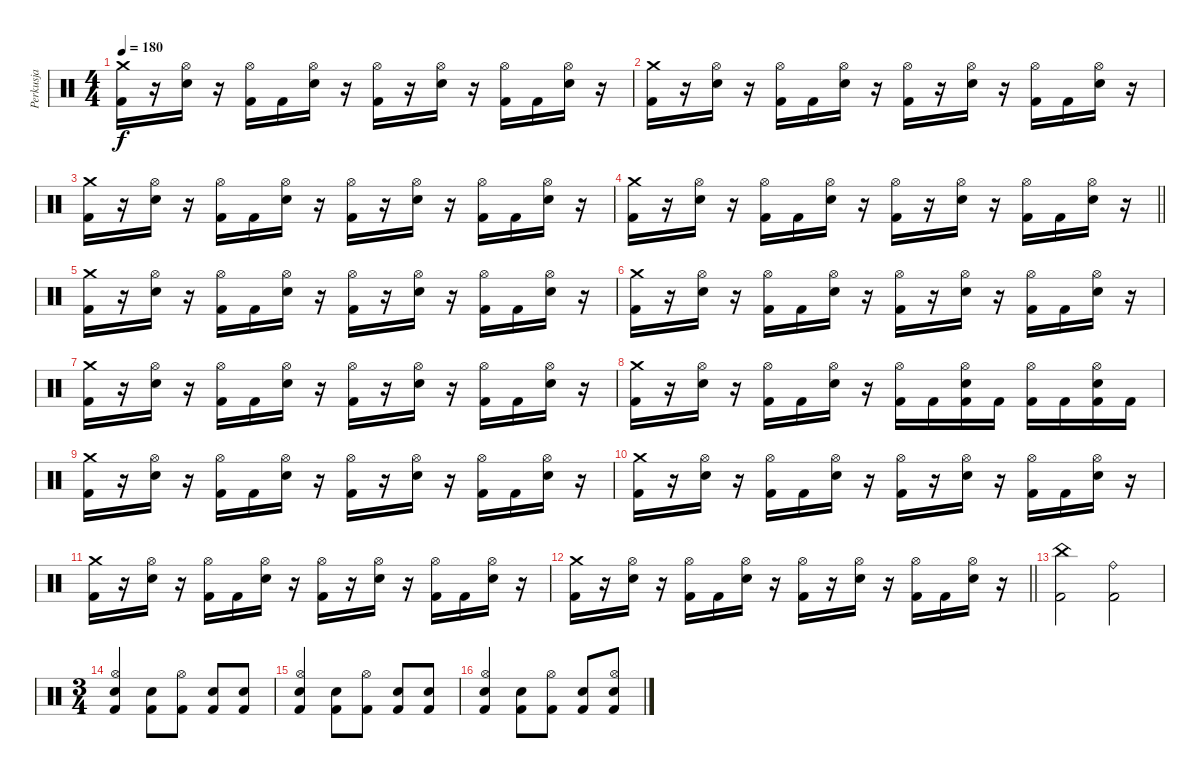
\track ("Perkusja" "Perkusja") {instrument percussion}
\staff {score}
\articulation defaults
\ts (4 4)
\tempo 180
\clef neutral
\ks c
("Crash medium (hit)" "Kick (hit) 2").16{dy f} r.16 ("Hi-Hat (open)" "Snare (hit) 2").16 r.16 ("Hi-Hat (open)" "Kick (hit) 2").16 "Kick (hit) 2".16 ("Hi-Hat (open)" "Snare (hit) 2").16 r.16 ("Hi-Hat (open)" "Kick (hit) 2").16 r.16 ("Hi-Hat (open)" "Snare (hit) 2").16 r.16 ("Hi-Hat (open)" "Kick (hit) 2").16 "Kick (hit) 2".16 ("Hi-Hat (open)" "Snare (hit) 2").16 r.16 |
("Crash medium (hit)" "Kick (hit) 2").16 r.16 ("Hi-Hat (open)" "Snare (hit) 2").16 r.16 ("Hi-Hat (open)" "Kick (hit) 2").16 "Kick (hit) 2".16 ("Hi-Hat (open)" "Snare (hit) 2").16 r.16 ("Hi-Hat (open)" "Kick (hit) 2").16 r.16 ("Hi-Hat (open)" "Snare (hit) 2").16 r.16 ("Hi-Hat (open)" "Kick (hit) 2").16 "Kick (hit) 2".16 ("Hi-Hat (open)" "Snare (hit) 2").16 r.16 |
("Crash medium (hit)" "Kick (hit) 2").16 r.16 ("Hi-Hat (open)" "Snare (hit) 2").16 r.16 ("Hi-Hat (open)" "Kick (hit) 2").16 "Kick (hit) 2".16 ("Hi-Hat (open)" "Snare (hit) 2").16 r.16 ("Hi-Hat (open)" "Kick (hit) 2").16 r.16 ("Hi-Hat (open)" "Snare (hit) 2").16 r.16 ("Hi-Hat (open)" "Kick (hit) 2").16 "Kick (hit) 2".16 ("Hi-Hat (open)" "Snare (hit) 2").16 r.16 |
\barLineRight lightlight
("Crash medium (hit)" "Kick (hit) 2").16 r.16 ("Hi-Hat (open)" "Snare (hit) 2").16 r.16 ("Hi-Hat (open)" "Kick (hit) 2").16 "Kick (hit) 2".16 ("Hi-Hat (open)" "Snare (hit) 2").16 r.16 ("Hi-Hat (open)" "Kick (hit) 2").16 r.16 ("Hi-Hat (open)" "Snare (hit) 2").16 r.16 ("Hi-Hat (open)" "Kick (hit) 2").16 "Kick (hit) 2".16 ("Hi-Hat (open)" "Snare (hit) 2").16 r.16 |
("Crash medium (hit)" "Kick (hit) 2").16 r.16 ("Hi-Hat (open)" "Snare (hit) 2").16 r.16 ("Hi-Hat (open)" "Kick (hit) 2").16 "Kick (hit) 2".16 ("Hi-Hat (open)" "Snare (hit) 2").16 r.16 ("Hi-Hat (open)" "Kick (hit) 2").16 r.16 ("Hi-Hat (open)" "Snare (hit) 2").16 r.16 ("Hi-Hat (open)" "Kick (hit) 2").16 "Kick (hit) 2".16 ("Hi-Hat (open)" "Snare (hit) 2").16 r.16 |
("Crash medium (hit)" "Kick (hit) 2").16 r.16 ("Hi-Hat (open)" "Snare (hit) 2").16 r.16 ("Hi-Hat (open)" "Kick (hit) 2").16 "Kick (hit) 2".16 ("Hi-Hat (open)" "Snare (hit) 2").16 r.16 ("Hi-Hat (open)" "Kick (hit) 2").16 r.16 ("Hi-Hat (open)" "Snare (hit) 2").16 r.16 ("Hi-Hat (open)" "Kick (hit) 2").16 "Kick (hit) 2".16 ("Hi-Hat (open)" "Snare (hit) 2").16 r.16 |
("Crash medium (hit)" "Kick (hit) 2").16 r.16 ("Hi-Hat (open)" "Snare (hit) 2").16 r.16 ("Hi-Hat (open)" "Kick (hit) 2").16 "Kick (hit) 2".16 ("Hi-Hat (open)" "Snare (hit) 2").16 r.16 ("Hi-Hat (open)" "Kick (hit) 2").16 r.16 ("Hi-Hat (open)" "Snare (hit) 2").16 r.16 ("Hi-Hat (open)" "Kick (hit) 2").16 "Kick (hit) 2".16 ("Hi-Hat (open)" "Snare (hit) 2").16 r.16 |
("Crash medium (hit)" "Kick (hit) 2").16 r.16 ("Hi-Hat (open)" "Snare (hit) 2").16 r.16 ("Hi-Hat (open)" "Kick (hit) 2").16 "Kick (hit) 2".16 ("Hi-Hat (open)" "Snare (hit) 2").16 r.16 ("Hi-Hat (open)" "Kick (hit) 2").16 "Kick (hit) 2".16 ("Hi-Hat (open)" "Snare (hit) 2" "Kick (hit) 2").16 "Kick (hit) 2".16 ("Hi-Hat (open)" "Kick (hit) 2").16 "Kick (hit) 2".16 ("Hi-Hat (open)" "Snare (hit) 2" "Kick (hit) 2").16 "Kick (hit) 2".16 |
("Crash medium (hit)" "Kick (hit) 2").16 r.16 ("Hi-Hat (open)" "Snare (hit) 2").16 r.16 ("Hi-Hat (open)" "Kick (hit) 2").16 "Kick (hit) 2".16 ("Hi-Hat (open)" "Snare (hit) 2").16 r.16 ("Hi-Hat (open)" "Kick (hit) 2").16 r.16 ("Hi-Hat (open)" "Snare (hit) 2").16 r.16 ("Hi-Hat (open)" "Kick (hit) 2").16 "Kick (hit) 2".16 ("Hi-Hat (open)" "Snare (hit) 2").16 r.16 |
("Crash medium (hit)" "Kick (hit) 2").16 r.16 ("Hi-Hat (open)" "Snare (hit) 2").16 r.16 ("Hi-Hat (open)" "Kick (hit) 2").16 "Kick (hit) 2".16 ("Hi-Hat (open)" "Snare (hit) 2").16 r.16 ("Hi-Hat (open)" "Kick (hit) 2").16 r.16 ("Hi-Hat (open)" "Snare (hit) 2").16 r.16 ("Hi-Hat (open)" "Kick (hit) 2").16 "Kick (hit) 2".16 ("Hi-Hat (open)" "Snare (hit) 2").16 r.16 |
("Crash medium (hit)" "Kick (hit) 2").16 r.16 ("Hi-Hat (open)" "Snare (hit) 2").16 r.16 ("Hi-Hat (open)" "Kick (hit) 2").16 "Kick (hit) 2".16 ("Hi-Hat (open)" "Snare (hit) 2").16 r.16 ("Hi-Hat (open)" "Kick (hit) 2").16 r.16 ("Hi-Hat (open)" "Snare (hit) 2").16 r.16 ("Hi-Hat (open)" "Kick (hit) 2").16 "Kick (hit) 2".16 ("Hi-Hat (open)" "Snare (hit) 2").16 r.16 |
\barLineRight lightlight
("Crash medium (hit)" "Kick (hit) 2").16 r.16 ("Hi-Hat (open)" "Snare (hit) 2").16 r.16 ("Hi-Hat (open)" "Kick (hit) 2").16 "Kick (hit) 2".16 ("Hi-Hat (open)" "Snare (hit) 2").16 r.16 ("Hi-Hat (open)" "Kick (hit) 2").16 r.16 ("Hi-Hat (open)" "Snare (hit) 2").16 r.16 ("Hi-Hat (open)" "Kick (hit) 2").16 "Kick (hit) 2".16 ("Hi-Hat (open)" "Snare (hit) 2").16 r.16 |
("China (hit)" "Kick (hit) 2").2 ("Ride (bell)" "Kick (hit) 2").2 |
\ts (3 4)
("Hi-Hat (open)" "Snare (hit) 2" "Kick (hit) 2").4 ("Snare (hit) 2" "Kick (hit) 2").8 ("Hi-Hat (open)" "Kick (hit) 2").8 ("Snare (hit) 2" "Kick (hit) 2").8 ("Snare (hit) 2" "Kick (hit) 2").8 |
("Hi-Hat (open)" "Snare (hit) 2" "Kick (hit) 2").4 ("Snare (hit) 2" "Kick (hit) 2").8 ("Hi-Hat (open)" "Kick (hit) 2").8 ("Snare (hit) 2" "Kick (hit) 2").8 ("Snare (hit) 2" "Kick (hit) 2").8 |
("Hi-Hat (open)" "Snare (hit) 2" "Kick (hit) 2").4 ("Snare (hit) 2" "Kick (hit) 2").8 ("Hi-Hat (open)" "Kick (hit) 2").8 ("Snare (hit) 2" "Kick (hit) 2").8 ("Hi-Hat (open)" "Snare (hit) 2" "Kick (hit) 2").8
